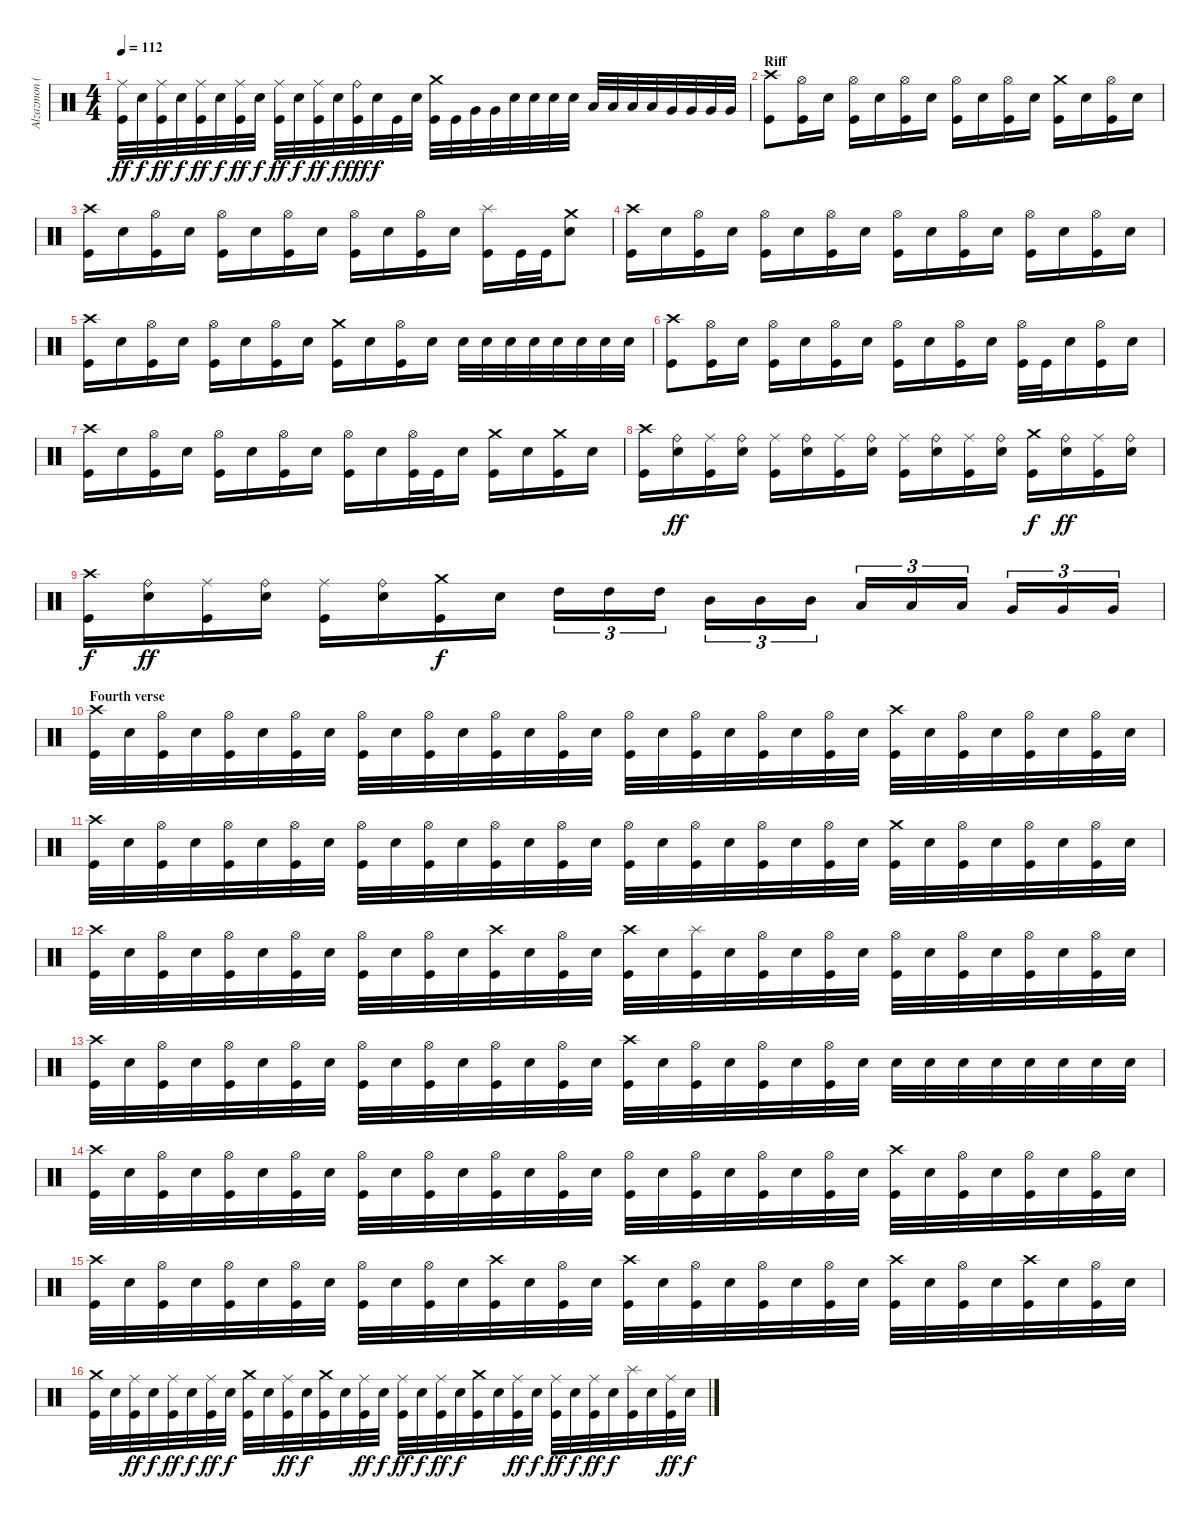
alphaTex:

\track ("Alzazmon (Drums)" "Alzazmon (") {instrument percussion}
\staff {score}
\articulation defaults
\ts (4 4)
\tempo 112
\clef neutral
\ks c
("Ride (middle)" "Kick (hit)").32{dy ff} "Electric Snare (hit)".32{dy f} ("Ride (middle)" "Kick (hit)").32{dy ff} "Electric Snare (hit)".32{dy f} ("Ride (middle)" "Kick (hit)").32{dy ff} "Electric Snare (hit)".32{dy f} ("Ride (middle)" "Kick (hit)").32{dy ff} "Electric Snare (hit)".32{dy f} ("Ride (middle)" "Kick (hit)").32{dy ff} "Electric Snare (hit)".32{dy f} ("Ride (middle)" "Kick (hit)").32{dy ff} "Electric Snare (hit)".32{dy f} ("Ride (bell)" "Kick (hit)").32{dy fff} "Electric Snare (hit)".32{dy f} "Kick (hit)".32 "Electric Snare (hit)".32 ("Crash medium (hit)" "Kick (hit)").32 "Kick (hit)".32 "Very Low Tom (hit)".32 "Very Low Tom (hit)".32 "Electric Snare (hit)".32 "Electric Snare (hit)".32 "Electric Snare (hit)".32 "Electric Snare (hit)".32 "Low Tom (hit)".32 "Low Tom (hit)".32 "Low Tom (hit)".32 "Low Tom (hit)".32 "Very Low Tom (hit)".32 "Very Low Tom (hit)".32 "Very Low Tom (hit)".32 "Very Low Tom (hit)".32 |
\section ("" "Riff")
("Crash high (hit)" "Kick (hit)").8 ("Hi-Hat (open)" "Kick (hit)").16 "Electric Snare (hit)".16 ("Hi-Hat (open)" "Kick (hit)").16 "Electric Snare (hit)".16 ("Hi-Hat (open)" "Kick (hit)").16 "Electric Snare (hit)".16 ("Hi-Hat (open)" "Kick (hit)").16 "Electric Snare (hit)".16 ("Hi-Hat (open)" "Kick (hit)").16 "Electric Snare (hit)".16 ("Crash medium (hit)" "Kick (hit)").16 "Electric Snare (hit)".16 ("Hi-Hat (open)" "Kick (hit)").16 "Electric Snare (hit)".16 |
("Crash high (hit)" "Kick (hit)").16 "Electric Snare (hit)".16 ("Hi-Hat (open)" "Kick (hit)").16 "Electric Snare (hit)".16 ("Hi-Hat (open)" "Kick (hit)").16 "Electric Snare (hit)".16 ("Hi-Hat (open)" "Kick (hit)").16 "Electric Snare (hit)".16 ("Hi-Hat (open)" "Kick (hit)").16 "Electric Snare (hit)".16 ("Hi-Hat (open)" "Kick (hit)").16 "Electric Snare (hit)".16 ("Splash (hit)" "Kick (hit)").16 "Kick (hit)".32 "Kick (hit)".32 ("Crash medium (hit)" "Electric Snare (hit)").8 |
("Crash high (hit)" "Kick (hit)").16 "Electric Snare (hit)".16 ("Hi-Hat (open)" "Kick (hit)").16 "Electric Snare (hit)".16 ("Hi-Hat (open)" "Kick (hit)").16 "Electric Snare (hit)".16 ("Hi-Hat (open)" "Kick (hit)").16 "Electric Snare (hit)".16 ("Hi-Hat (open)" "Kick (hit)").16 "Electric Snare (hit)".16 ("Hi-Hat (open)" "Kick (hit)").16 "Electric Snare (hit)".16 ("Hi-Hat (open)" "Kick (hit)").16 "Electric Snare (hit)".16 ("Hi-Hat (open)" "Kick (hit)").16 "Electric Snare (hit)".16 |
("Crash high (hit)" "Kick (hit)").16 "Electric Snare (hit)".16 ("Hi-Hat (open)" "Kick (hit)").16 "Electric Snare (hit)".16 ("Hi-Hat (open)" "Kick (hit)").16 "Electric Snare (hit)".16 ("Hi-Hat (open)" "Kick (hit)").16 "Electric Snare (hit)".16 ("Crash medium (hit)" "Kick (hit)").16 "Electric Snare (hit)".16 ("Hi-Hat (open)" "Kick (hit)").16 "Electric Snare (hit)".16 "Electric Snare (hit)".32 "Electric Snare (hit)".32 "Electric Snare (hit)".32 "Electric Snare (hit)".32 "Electric Snare (hit)".32 "Electric Snare (hit)".32 "Electric Snare (hit)".32 "Electric Snare (hit)".32 |
("Crash high (hit)" "Kick (hit)").8 ("Hi-Hat (open)" "Kick (hit)").16 "Electric Snare (hit)".16 ("Hi-Hat (open)" "Kick (hit)").16 "Electric Snare (hit)".16 ("Hi-Hat (open)" "Kick (hit)").16 "Electric Snare (hit)".16 ("Hi-Hat (open)" "Kick (hit)").16 "Electric Snare (hit)".16 ("Hi-Hat (open)" "Kick (hit)").16 "Electric Snare (hit)".16 ("Hi-Hat (open)" "Kick (hit)").32 "Kick (hit)".32 "Electric Snare (hit)".16 ("Hi-Hat (open)" "Kick (hit)").16 "Electric Snare (hit)".16 |
("Crash high (hit)" "Kick (hit)").16 "Electric Snare (hit)".16 ("Hi-Hat (open)" "Kick (hit)").16 "Electric Snare (hit)".16 ("Hi-Hat (open)" "Kick (hit)").16 "Electric Snare (hit)".16 ("Hi-Hat (open)" "Kick (hit)").16 "Electric Snare (hit)".16 ("Hi-Hat (open)" "Kick (hit)").16 "Electric Snare (hit)".16 ("Hi-Hat (open)" "Kick (hit)").32 "Kick (hit)".32 "Electric Snare (hit)".16 ("Crash medium (hit)" "Kick (hit)").16 "Electric Snare (hit)".16 ("Crash medium (hit)" "Kick (hit)").16 "Electric Snare (hit)".16 |
("Crash high (hit)" "Kick (hit)").16 ("Ride (bell)" "Electric Snare (hit)").16{dy ff} ("Ride (middle)" "Kick (hit)").16 ("Ride (bell)" "Electric Snare (hit)").16 ("Ride (middle)" "Kick (hit)").16 ("Ride (bell)" "Electric Snare (hit)").16 ("Ride (middle)" "Kick (hit)").16 ("Ride (bell)" "Electric Snare (hit)").16 ("Ride (middle)" "Kick (hit)").16 ("Ride (bell)" "Electric Snare (hit)").16 ("Ride (middle)" "Kick (hit)").16 ("Ride (bell)" "Electric Snare (hit)").16 ("Crash medium (hit)" "Kick (hit)").16{dy f} ("Ride (bell)" "Electric Snare (hit)").16{dy ff} ("Ride (middle)" "Kick (hit)").16 ("Ride (bell)" "Electric Snare (hit)").16 |
("Crash high (hit)" "Kick (hit)").16{dy f} ("Ride (bell)" "Electric Snare (hit)").16{dy ff} ("Ride (middle)" "Kick (hit)").16 ("Ride (bell)" "Electric Snare (hit)").16 ("Ride (middle)" "Kick (hit)").16 ("Ride (bell)" "Electric Snare (hit)").16 ("Crash medium (hit)" "Kick (hit)").16{dy f} "Electric Snare (hit)".16 "High Tom (hit)".16{tu (3 2)} "High Tom (hit)".16{tu (3 2)} "High Tom (hit)".16{tu (3 2)} "Mid Tom (hit)".16{tu (3 2)} "Mid Tom (hit)".16{tu (3 2)} "Mid Tom (hit)".16{tu (3 2)} "Low Tom (hit)".16{tu (3 2)} "Low Tom (hit)".16{tu (3 2)} "Low Tom (hit)".16{tu (3 2)} "Very Low Tom (hit)".16{tu (3 2)} "Very Low Tom (hit)".16{tu (3 2)} "Very Low Tom (hit)".16{tu (3 2)} |
\section ("" "Fourth verse")
("Crash high (hit)" "Kick (hit)").32 "Electric Snare (hit)".32 ("Hi-Hat (open)" "Kick (hit)").32 "Electric Snare (hit)".32 ("Hi-Hat (open)" "Kick (hit)").32 "Electric Snare (hit)".32 ("Hi-Hat (open)" "Kick (hit)").32 "Electric Snare (hit)".32 ("Hi-Hat (open)" "Kick (hit)").32 "Electric Snare (hit)".32 ("Hi-Hat (open)" "Kick (hit)").32 "Electric Snare (hit)".32 ("Hi-Hat (open)" "Kick (hit)").32 "Electric Snare (hit)".32 ("Hi-Hat (open)" "Kick (hit)").32 "Electric Snare (hit)".32 ("Hi-Hat (open)" "Kick (hit)").32 "Electric Snare (hit)".32 ("Hi-Hat (open)" "Kick (hit)").32 "Electric Snare (hit)".32 ("Hi-Hat (open)" "Kick (hit)").32 "Electric Snare (hit)".32 ("Hi-Hat (open)" "Kick (hit)").32 "Electric Snare (hit)".32 ("Crash high (hit)" "Kick (hit)").32 "Electric Snare (hit)".32 ("Hi-Hat (open)" "Kick (hit)").32 "Electric Snare (hit)".32 ("Hi-Hat (open)" "Kick (hit)").32 "Electric Snare (hit)".32 ("Hi-Hat (open)" "Kick (hit)").32 "Electric Snare (hit)".32 |
("Crash high (hit)" "Kick (hit)").32 "Electric Snare (hit)".32 ("Hi-Hat (open)" "Kick (hit)").32 "Electric Snare (hit)".32 ("Hi-Hat (open)" "Kick (hit)").32 "Electric Snare (hit)".32 ("Hi-Hat (open)" "Kick (hit)").32 "Electric Snare (hit)".32 ("Hi-Hat (open)" "Kick (hit)").32 "Electric Snare (hit)".32 ("Hi-Hat (open)" "Kick (hit)").32 "Electric Snare (hit)".32 ("Hi-Hat (open)" "Kick (hit)").32 "Electric Snare (hit)".32 ("Hi-Hat (open)" "Kick (hit)").32 "Electric Snare (hit)".32 ("Hi-Hat (open)" "Kick (hit)").32 "Electric Snare (hit)".32 ("Hi-Hat (open)" "Kick (hit)").32 "Electric Snare (hit)".32 ("Hi-Hat (open)" "Kick (hit)").32 "Electric Snare (hit)".32 ("Hi-Hat (open)" "Kick (hit)").32 "Electric Snare (hit)".32 ("Crash medium (hit)" "Kick (hit)").32 "Electric Snare (hit)".32 ("Hi-Hat (open)" "Kick (hit)").32 "Electric Snare (hit)".32 ("Hi-Hat (open)" "Kick (hit)").32 "Electric Snare (hit)".32 ("Hi-Hat (open)" "Kick (hit)").32 "Electric Snare (hit)".32 |
("Crash high (hit)" "Kick (hit)").32 "Electric Snare (hit)".32 ("Hi-Hat (open)" "Kick (hit)").32 "Electric Snare (hit)".32 ("Hi-Hat (open)" "Kick (hit)").32 "Electric Snare (hit)".32 ("Hi-Hat (open)" "Kick (hit)").32 "Electric Snare (hit)".32 ("Hi-Hat (open)" "Kick (hit)").32 "Electric Snare (hit)".32 ("Hi-Hat (open)" "Kick (hit)").32 "Electric Snare (hit)".32 ("Crash high (hit)" "Kick (hit)").32 "Electric Snare (hit)".32 ("Hi-Hat (open)" "Kick (hit)").32 "Electric Snare (hit)".32 ("Crash high (hit)" "Kick (hit)").32 "Electric Snare (hit)".32 ("Splash (hit)" "Kick (hit)").32 "Electric Snare (hit)".32 ("Hi-Hat (open)" "Kick (hit)").32 "Electric Snare (hit)".32 ("Hi-Hat (open)" "Kick (hit)").32 "Electric Snare (hit)".32 ("Hi-Hat (open)" "Kick (hit)").32 "Electric Snare (hit)".32 ("Hi-Hat (open)" "Kick (hit)").32 "Electric Snare (hit)".32 ("Hi-Hat (open)" "Kick (hit)").32 "Electric Snare (hit)".32 ("Hi-Hat (open)" "Kick (hit)").32 "Electric Snare (hit)".32 |
("Crash high (hit)" "Kick (hit)").32 "Electric Snare (hit)".32 ("Hi-Hat (open)" "Kick (hit)").32 "Electric Snare (hit)".32 ("Hi-Hat (open)" "Kick (hit)").32 "Electric Snare (hit)".32 ("Hi-Hat (open)" "Kick (hit)").32 "Electric Snare (hit)".32 ("Hi-Hat (open)" "Kick (hit)").32 "Electric Snare (hit)".32 ("Hi-Hat (open)" "Kick (hit)").32 "Electric Snare (hit)".32 ("Hi-Hat (open)" "Kick (hit)").32 "Electric Snare (hit)".32 ("Hi-Hat (open)" "Kick (hit)").32 "Electric Snare (hit)".32 ("Crash high (hit)" "Kick (hit)").32 "Electric Snare (hit)".32 ("Hi-Hat (open)" "Kick (hit)").32 "Electric Snare (hit)".32 ("Hi-Hat (open)" "Kick (hit)").32 "Electric Snare (hit)".32 ("Hi-Hat (open)" "Kick (hit)").32 "Electric Snare (hit)".32 "Electric Snare (hit)".32 "Electric Snare (hit)".32 "Electric Snare (hit)".32 "Electric Snare (hit)".32 "Electric Snare (hit)".32 "Electric Snare (hit)".32 "Electric Snare (hit)".32 "Electric Snare (hit)".32 |
("Crash high (hit)" "Kick (hit)").32 "Electric Snare (hit)".32 ("Hi-Hat (open)" "Kick (hit)").32 "Electric Snare (hit)".32 ("Hi-Hat (open)" "Kick (hit)").32 "Electric Snare (hit)".32 ("Hi-Hat (open)" "Kick (hit)").32 "Electric Snare (hit)".32 ("Hi-Hat (open)" "Kick (hit)").32 "Electric Snare (hit)".32 ("Hi-Hat (open)" "Kick (hit)").32 "Electric Snare (hit)".32 ("Hi-Hat (open)" "Kick (hit)").32 "Electric Snare (hit)".32 ("Hi-Hat (open)" "Kick (hit)").32 "Electric Snare (hit)".32 ("Hi-Hat (open)" "Kick (hit)").32 "Electric Snare (hit)".32 ("Hi-Hat (open)" "Kick (hit)").32 "Electric Snare (hit)".32 ("Hi-Hat (open)" "Kick (hit)").32 "Electric Snare (hit)".32 ("Hi-Hat (open)" "Kick (hit)").32 "Electric Snare (hit)".32 ("Crash high (hit)" "Kick (hit)").32 "Electric Snare (hit)".32 ("Hi-Hat (open)" "Kick (hit)").32 "Electric Snare (hit)".32 ("Hi-Hat (open)" "Kick (hit)").32 "Electric Snare (hit)".32 ("Hi-Hat (open)" "Kick (hit)").32 "Electric Snare (hit)".32 |
("Crash high (hit)" "Kick (hit)").32 "Electric Snare (hit)".32 ("Hi-Hat (open)" "Kick (hit)").32 "Electric Snare (hit)".32 ("Hi-Hat (open)" "Kick (hit)").32 "Electric Snare (hit)".32 ("Hi-Hat (open)" "Kick (hit)").32 "Electric Snare (hit)".32 ("Hi-Hat (open)" "Kick (hit)").32 "Electric Snare (hit)".32 ("Hi-Hat (open)" "Kick (hit)").32 "Electric Snare (hit)".32 ("Crash high (hit)" "Kick (hit)").32 "Electric Snare (hit)".32 ("Hi-Hat (open)" "Kick (hit)").32 "Electric Snare (hit)".32 ("Crash high (hit)" "Kick (hit)").32 "Electric Snare (hit)".32 ("Hi-Hat (open)" "Kick (hit)").32 "Electric Snare (hit)".32 ("Hi-Hat (open)" "Kick (hit)").32 "Electric Snare (hit)".32 ("Hi-Hat (open)" "Kick (hit)").32 "Electric Snare (hit)".32 ("Crash high (hit)" "Kick (hit)").32 "Electric Snare (hit)".32 ("Hi-Hat (open)" "Kick (hit)").32 "Electric Snare (hit)".32 ("Crash high (hit)" "Kick (hit)").32 "Electric Snare (hit)".32 ("Hi-Hat (open)" "Kick (hit)").32 "Electric Snare (hit)".32 |
("Crash medium (hit)" "Kick (hit)").32 "Electric Snare (hit)".32 ("Ride (middle)" "Kick (hit)").32{dy ff} "Electric Snare (hit)".32{dy f} ("Ride (middle)" "Kick (hit)").32{dy ff} "Electric Snare (hit)".32{dy f} ("Ride (middle)" "Kick (hit)").32{dy ff} "Electric Snare (hit)".32{dy f} ("Crash medium (hit)" "Kick (hit)").32 "Electric Snare (hit)".32 ("Ride (middle)" "Kick (hit)").32{dy ff} "Electric Snare (hit)".32{dy f} ("Crash medium (hit)" "Kick (hit)").32 "Electric Snare (hit)".32 ("Ride (middle)" "Kick (hit)").32{dy ff} "Electric Snare (hit)".32{dy f} ("Ride (middle)" "Kick (hit)").32{dy ff} "Electric Snare (hit)".32{dy f} ("Ride (middle)" "Kick (hit)").32{dy ff} "Electric Snare (hit)".32{dy f} ("Crash medium (hit)" "Kick (hit)").32 "Electric Snare (hit)".32 ("Ride (middle)" "Kick (hit)").32{dy ff} "Electric Snare (hit)".32{dy f} ("Ride (middle)" "Kick (hit)").32{dy ff} "Electric Snare (hit)".32{dy f} ("Ride (middle)" "Kick (hit)").32{dy ff} "Electric Snare (hit)".32{dy f} ("Splash (hit)" "Kick (hit)").32 "Electric Snare (hit)".32 ("Ride (middle)" "Kick (hit)").32{dy ff} "Electric Snare (hit)".32{dy f}
